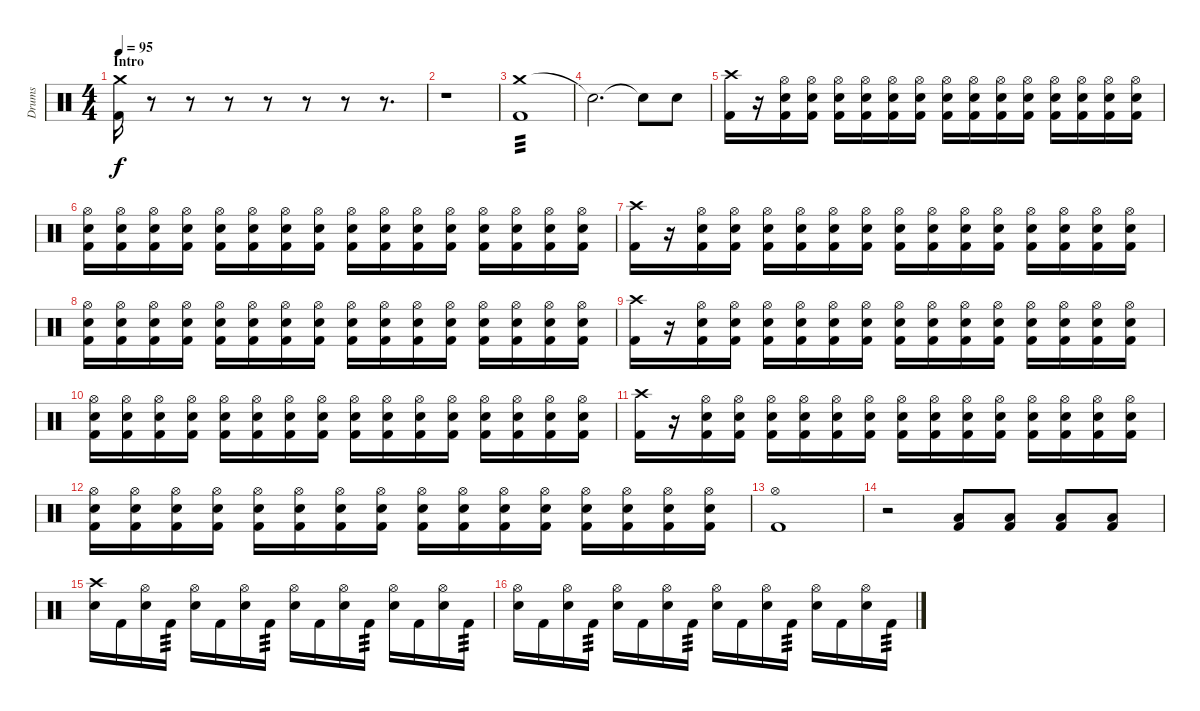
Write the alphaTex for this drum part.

\track ("Drums" "Drums") {instrument percussion}
\staff {score}
\articulation defaults
\ts (4 4)
\section ("" "Intro")
\tempo 95
\clef neutral
\ks c
("Crash medium (hit)" "Kick (hit) 2").16{dy f} r.8{volume 0} r.8 r.8 r.8 r.8 r.8 r.8{d} |
r.1 |
("Crash medium (hit)" "Kick (hit) 2").1{tp 3 volume 13} |
"Snare (hit)"{t}.2{d} "Snare (hit)"{t}.8 "Electric Snare (hit)".8 |
("Crash high (hit)" "Kick (hit) 2").16 r.16 ("Hi-Hat (open)" "Electric Snare (hit)" "Kick (hit) 2").16 ("Hi-Hat (open)" "Electric Snare (hit)" "Kick (hit) 2").16 ("Hi-Hat (open)" "Electric Snare (hit)" "Kick (hit) 2").16 ("Hi-Hat (open)" "Electric Snare (hit)" "Kick (hit) 2").16 ("Hi-Hat (open)" "Electric Snare (hit)" "Kick (hit) 2").16 ("Hi-Hat (open)" "Electric Snare (hit)" "Kick (hit) 2").16 ("Hi-Hat (open)" "Electric Snare (hit)" "Kick (hit) 2").16 ("Hi-Hat (open)" "Electric Snare (hit)" "Kick (hit) 2").16 ("Hi-Hat (open)" "Electric Snare (hit)" "Kick (hit) 2").16 ("Hi-Hat (open)" "Electric Snare (hit)" "Kick (hit) 2").16 ("Hi-Hat (open)" "Electric Snare (hit)" "Kick (hit) 2").16 ("Hi-Hat (open)" "Electric Snare (hit)" "Kick (hit) 2").16 ("Hi-Hat (open)" "Electric Snare (hit)" "Kick (hit) 2").16 ("Hi-Hat (open)" "Electric Snare (hit)" "Kick (hit) 2").16 |
("Hi-Hat (open)" "Electric Snare (hit)" "Kick (hit) 2").16 ("Hi-Hat (open)" "Electric Snare (hit)" "Kick (hit) 2").16 ("Hi-Hat (open)" "Electric Snare (hit)" "Kick (hit) 2").16 ("Hi-Hat (open)" "Electric Snare (hit)" "Kick (hit) 2").16 ("Hi-Hat (open)" "Electric Snare (hit)" "Kick (hit) 2").16 ("Hi-Hat (open)" "Electric Snare (hit)" "Kick (hit) 2").16 ("Hi-Hat (open)" "Electric Snare (hit)" "Kick (hit) 2").16 ("Hi-Hat (open)" "Electric Snare (hit)" "Kick (hit) 2").16 ("Hi-Hat (open)" "Electric Snare (hit)" "Kick (hit) 2").16 ("Hi-Hat (open)" "Electric Snare (hit)" "Kick (hit) 2").16 ("Hi-Hat (open)" "Electric Snare (hit)" "Kick (hit) 2").16 ("Hi-Hat (open)" "Electric Snare (hit)" "Kick (hit) 2").16 ("Hi-Hat (open)" "Electric Snare (hit)" "Kick (hit) 2").16 ("Hi-Hat (open)" "Electric Snare (hit)" "Kick (hit) 2").16 ("Hi-Hat (open)" "Electric Snare (hit)" "Kick (hit) 2").16 ("Hi-Hat (open)" "Electric Snare (hit)" "Kick (hit) 2").16 |
("Crash high (hit)" "Kick (hit) 2").16 r.16 ("Hi-Hat (open)" "Electric Snare (hit)" "Kick (hit) 2").16 ("Hi-Hat (open)" "Electric Snare (hit)" "Kick (hit) 2").16 ("Hi-Hat (open)" "Electric Snare (hit)" "Kick (hit) 2").16 ("Hi-Hat (open)" "Electric Snare (hit)" "Kick (hit) 2").16 ("Hi-Hat (open)" "Electric Snare (hit)" "Kick (hit) 2").16 ("Hi-Hat (open)" "Electric Snare (hit)" "Kick (hit) 2").16 ("Hi-Hat (open)" "Electric Snare (hit)" "Kick (hit) 2").16 ("Hi-Hat (open)" "Electric Snare (hit)" "Kick (hit) 2").16 ("Hi-Hat (open)" "Electric Snare (hit)" "Kick (hit) 2").16 ("Hi-Hat (open)" "Electric Snare (hit)" "Kick (hit) 2").16 ("Hi-Hat (open)" "Electric Snare (hit)" "Kick (hit) 2").16 ("Hi-Hat (open)" "Electric Snare (hit)" "Kick (hit) 2").16 ("Hi-Hat (open)" "Electric Snare (hit)" "Kick (hit) 2").16 ("Hi-Hat (open)" "Electric Snare (hit)" "Kick (hit) 2").16 |
("Hi-Hat (open)" "Electric Snare (hit)" "Kick (hit) 2").16 ("Hi-Hat (open)" "Electric Snare (hit)" "Kick (hit) 2").16 ("Hi-Hat (open)" "Electric Snare (hit)" "Kick (hit) 2").16 ("Hi-Hat (open)" "Electric Snare (hit)" "Kick (hit) 2").16 ("Hi-Hat (open)" "Electric Snare (hit)" "Kick (hit) 2").16 ("Hi-Hat (open)" "Electric Snare (hit)" "Kick (hit) 2").16 ("Hi-Hat (open)" "Electric Snare (hit)" "Kick (hit) 2").16 ("Hi-Hat (open)" "Electric Snare (hit)" "Kick (hit) 2").16 ("Hi-Hat (open)" "Electric Snare (hit)" "Kick (hit) 2").16 ("Hi-Hat (open)" "Electric Snare (hit)" "Kick (hit) 2").16 ("Hi-Hat (open)" "Electric Snare (hit)" "Kick (hit) 2").16 ("Hi-Hat (open)" "Electric Snare (hit)" "Kick (hit) 2").16 ("Hi-Hat (open)" "Electric Snare (hit)" "Kick (hit) 2").16 ("Hi-Hat (open)" "Electric Snare (hit)" "Kick (hit) 2").16 ("Hi-Hat (open)" "Electric Snare (hit)" "Kick (hit) 2").16 ("Hi-Hat (open)" "Electric Snare (hit)" "Kick (hit) 2").16 |
("Crash high (hit)" "Kick (hit) 2").16 r.16 ("Hi-Hat (open)" "Electric Snare (hit)" "Kick (hit) 2").16 ("Hi-Hat (open)" "Electric Snare (hit)" "Kick (hit) 2").16 ("Hi-Hat (open)" "Electric Snare (hit)" "Kick (hit) 2").16 ("Hi-Hat (open)" "Electric Snare (hit)" "Kick (hit) 2").16 ("Hi-Hat (open)" "Electric Snare (hit)" "Kick (hit) 2").16 ("Hi-Hat (open)" "Electric Snare (hit)" "Kick (hit) 2").16 ("Hi-Hat (open)" "Electric Snare (hit)" "Kick (hit) 2").16 ("Hi-Hat (open)" "Electric Snare (hit)" "Kick (hit) 2").16 ("Hi-Hat (open)" "Electric Snare (hit)" "Kick (hit) 2").16 ("Hi-Hat (open)" "Electric Snare (hit)" "Kick (hit) 2").16 ("Hi-Hat (open)" "Electric Snare (hit)" "Kick (hit) 2").16 ("Hi-Hat (open)" "Electric Snare (hit)" "Kick (hit) 2").16 ("Hi-Hat (open)" "Electric Snare (hit)" "Kick (hit) 2").16 ("Hi-Hat (open)" "Electric Snare (hit)" "Kick (hit) 2").16 |
("Hi-Hat (open)" "Electric Snare (hit)" "Kick (hit) 2").16 ("Hi-Hat (open)" "Electric Snare (hit)" "Kick (hit) 2").16 ("Hi-Hat (open)" "Electric Snare (hit)" "Kick (hit) 2").16 ("Hi-Hat (open)" "Electric Snare (hit)" "Kick (hit) 2").16 ("Hi-Hat (open)" "Electric Snare (hit)" "Kick (hit) 2").16 ("Hi-Hat (open)" "Electric Snare (hit)" "Kick (hit) 2").16 ("Hi-Hat (open)" "Electric Snare (hit)" "Kick (hit) 2").16 ("Hi-Hat (open)" "Electric Snare (hit)" "Kick (hit) 2").16 ("Hi-Hat (open)" "Electric Snare (hit)" "Kick (hit) 2").16 ("Hi-Hat (open)" "Electric Snare (hit)" "Kick (hit) 2").16 ("Hi-Hat (open)" "Electric Snare (hit)" "Kick (hit) 2").16 ("Hi-Hat (open)" "Electric Snare (hit)" "Kick (hit) 2").16 ("Hi-Hat (open)" "Electric Snare (hit)" "Kick (hit) 2").16 ("Hi-Hat (open)" "Electric Snare (hit)" "Kick (hit) 2").16 ("Hi-Hat (open)" "Electric Snare (hit)" "Kick (hit) 2").16 ("Hi-Hat (open)" "Electric Snare (hit)" "Kick (hit) 2").16 |
("Crash high (hit)" "Kick (hit) 2").16 r.16 ("Hi-Hat (open)" "Electric Snare (hit)" "Kick (hit) 2").16 ("Hi-Hat (open)" "Electric Snare (hit)" "Kick (hit) 2").16 ("Hi-Hat (open)" "Electric Snare (hit)" "Kick (hit) 2").16 ("Hi-Hat (open)" "Electric Snare (hit)" "Kick (hit) 2").16 ("Hi-Hat (open)" "Electric Snare (hit)" "Kick (hit) 2").16 ("Hi-Hat (open)" "Electric Snare (hit)" "Kick (hit) 2").16 ("Hi-Hat (open)" "Electric Snare (hit)" "Kick (hit) 2").16 ("Hi-Hat (open)" "Electric Snare (hit)" "Kick (hit) 2").16 ("Hi-Hat (open)" "Electric Snare (hit)" "Kick (hit) 2").16 ("Hi-Hat (open)" "Electric Snare (hit)" "Kick (hit) 2").16 ("Hi-Hat (open)" "Electric Snare (hit)" "Kick (hit) 2").16 ("Hi-Hat (open)" "Electric Snare (hit)" "Kick (hit) 2").16 ("Hi-Hat (open)" "Electric Snare (hit)" "Kick (hit) 2").16 ("Hi-Hat (open)" "Electric Snare (hit)" "Kick (hit) 2").16 |
("Hi-Hat (open)" "Electric Snare (hit)" "Kick (hit) 2").16 ("Hi-Hat (open)" "Electric Snare (hit)" "Kick (hit) 2").16 ("Hi-Hat (open)" "Electric Snare (hit)" "Kick (hit) 2").16 ("Hi-Hat (open)" "Electric Snare (hit)" "Kick (hit) 2").16 ("Hi-Hat (open)" "Electric Snare (hit)" "Kick (hit) 2").16 ("Hi-Hat (open)" "Electric Snare (hit)" "Kick (hit) 2").16 ("Hi-Hat (open)" "Electric Snare (hit)" "Kick (hit) 2").16 ("Hi-Hat (open)" "Electric Snare (hit)" "Kick (hit) 2").16 ("Hi-Hat (open)" "Electric Snare (hit)" "Kick (hit) 2").16 ("Hi-Hat (open)" "Electric Snare (hit)" "Kick (hit) 2").16 ("Hi-Hat (open)" "Electric Snare (hit)" "Kick (hit) 2").16 ("Hi-Hat (open)" "Electric Snare (hit)" "Kick (hit) 2").16 ("Hi-Hat (open)" "Electric Snare (hit)" "Kick (hit) 2").16 ("Hi-Hat (open)" "Electric Snare (hit)" "Kick (hit) 2").16 ("Hi-Hat (open)" "Electric Snare (hit)" "Kick (hit) 2").16 ("Hi-Hat (open)" "Electric Snare (hit)" "Kick (hit) 2").16 |
("Hi-Hat (open)" "Kick (hit) 2").1 |
r.2 ("Low Floor Tom (hit)" "Kick (hit) 2").8 ("Low Floor Tom (hit)" "Kick (hit) 2").8 ("Low Floor Tom (hit)" "Kick (hit) 2").8 ("Low Floor Tom (hit)" "Kick (hit) 2").8 |
("Crash high (hit)" "Electric Snare (hit)").16 "Kick (hit) 2".16 ("Hi-Hat (open)" "Electric Snare (hit)").16 "Kick (hit) 2".16{tp 3} ("Hi-Hat (open)" "Electric Snare (hit)").16 "Kick (hit) 2".16 ("Hi-Hat (open)" "Electric Snare (hit)").16 "Kick (hit) 2".16{tp 3} ("Hi-Hat (open)" "Electric Snare (hit)").16 "Kick (hit) 2".16 ("Hi-Hat (open)" "Electric Snare (hit)").16 "Kick (hit) 2".16{tp 3} ("Hi-Hat (open)" "Electric Snare (hit)").16 "Kick (hit) 2".16 ("Hi-Hat (open)" "Electric Snare (hit)").16 "Kick (hit) 2".16{tp 3} |
("Hi-Hat (open)" "Electric Snare (hit)").16 "Kick (hit) 2".16 ("Hi-Hat (open)" "Electric Snare (hit)").16 "Kick (hit) 2".16{tp 3} ("Hi-Hat (open)" "Electric Snare (hit)").16 "Kick (hit) 2".16 ("Hi-Hat (open)" "Electric Snare (hit)").16 "Kick (hit) 2".16{tp 3} ("Hi-Hat (open)" "Electric Snare (hit)").16 "Kick (hit) 2".16 ("Hi-Hat (open)" "Electric Snare (hit)").16 "Kick (hit) 2".16{tp 3} ("Hi-Hat (open)" "Electric Snare (hit)").16 "Kick (hit) 2".16 ("Hi-Hat (open)" "Electric Snare (hit)").16 "Kick (hit) 2".16{tp 3}
